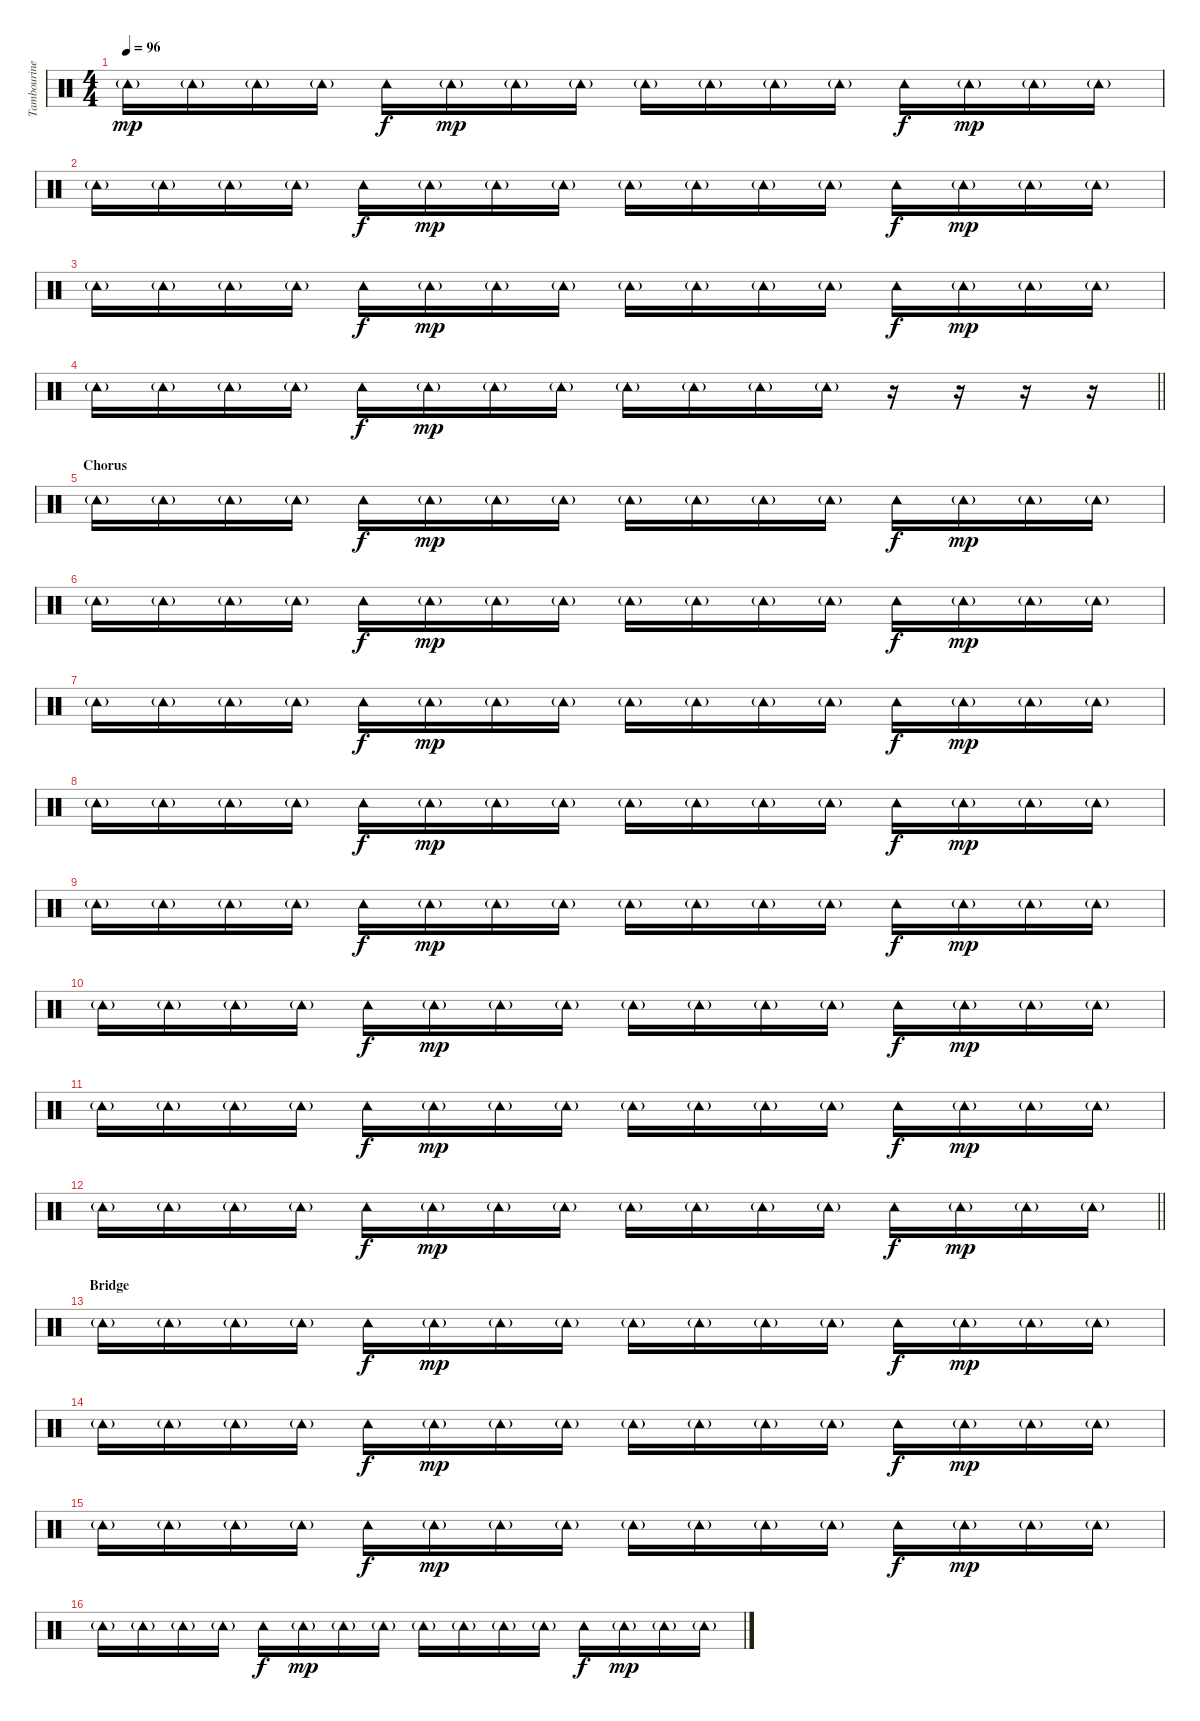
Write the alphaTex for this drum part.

\track ("Tambourine" "Tambourine") {instrument percussion}
\staff {score}
\articulation defaults
\ts (4 4)
\tempo 96
\clef neutral
\ks c "Tambourine (hit)"{g}.16{dy mp} "Tambourine (hit)"{g}.16 "Tambourine (hit)"{g}.16 "Tambourine (hit)"{g}.16 "Tambourine (hit)".16{dy f} "Tambourine (hit)"{g}.16{dy mp} "Tambourine (hit)"{g}.16 "Tambourine (hit)"{g}.16 "Tambourine (hit)"{g}.16 "Tambourine (hit)"{g}.16 "Tambourine (hit)"{g}.16 "Tambourine (hit)"{g}.16 "Tambourine (hit)".16{dy f} "Tambourine (hit)"{g}.16{dy mp} "Tambourine (hit)"{g}.16 "Tambourine (hit)"{g}.16
|
"Tambourine (hit)"{g}.16 "Tambourine (hit)"{g}.16 "Tambourine (hit)"{g}.16 "Tambourine (hit)"{g}.16 "Tambourine (hit)".16{dy f} "Tambourine (hit)"{g}.16{dy mp} "Tambourine (hit)"{g}.16 "Tambourine (hit)"{g}.16 "Tambourine (hit)"{g}.16 "Tambourine (hit)"{g}.16 "Tambourine (hit)"{g}.16 "Tambourine (hit)"{g}.16 "Tambourine (hit)".16{dy f} "Tambourine (hit)"{g}.16{dy mp} "Tambourine (hit)"{g}.16 "Tambourine (hit)"{g}.16 |
"Tambourine (hit)"{g}.16 "Tambourine (hit)"{g}.16 "Tambourine (hit)"{g}.16 "Tambourine (hit)"{g}.16 "Tambourine (hit)".16{dy f} "Tambourine (hit)"{g}.16{dy mp} "Tambourine (hit)"{g}.16 "Tambourine (hit)"{g}.16 "Tambourine (hit)"{g}.16 "Tambourine (hit)"{g}.16 "Tambourine (hit)"{g}.16 "Tambourine (hit)"{g}.16 "Tambourine (hit)".16{dy f} "Tambourine (hit)"{g}.16{dy mp} "Tambourine (hit)"{g}.16 "Tambourine (hit)"{g}.16 |
\barLineRight lightlight "Tambourine (hit)"{g}.16 "Tambourine (hit)"{g}.16 "Tambourine (hit)"{g}.16 "Tambourine (hit)"{g}.16 "Tambourine (hit)".16{dy f} "Tambourine (hit)"{g}.16{dy mp} "Tambourine (hit)"{g}.16 "Tambourine (hit)"{g}.16 "Tambourine (hit)"{g}.16 "Tambourine (hit)"{g}.16 "Tambourine (hit)"{g}.16 "Tambourine (hit)"{g}.16
r.16 r.16 r.16 r.16 |
\section ("" "Chorus")
"Tambourine (hit)"{g}.16 "Tambourine (hit)"{g}.16 "Tambourine (hit)"{g}.16 "Tambourine (hit)"{g}.16 "Tambourine (hit)".16{dy f} "Tambourine (hit)"{g}.16{dy mp} "Tambourine (hit)"{g}.16 "Tambourine (hit)"{g}.16 "Tambourine (hit)"{g}.16 "Tambourine (hit)"{g}.16 "Tambourine (hit)"{g}.16 "Tambourine (hit)"{g}.16 "Tambourine (hit)".16{dy f} "Tambourine (hit)"{g}.16{dy mp} "Tambourine (hit)"{g}.16 "Tambourine (hit)"{g}.16 |
"Tambourine (hit)"{g}.16 "Tambourine (hit)"{g}.16 "Tambourine (hit)"{g}.16 "Tambourine (hit)"{g}.16 "Tambourine (hit)".16{dy f} "Tambourine (hit)"{g}.16{dy mp} "Tambourine (hit)"{g}.16 "Tambourine (hit)"{g}.16 "Tambourine (hit)"{g}.16 "Tambourine (hit)"{g}.16 "Tambourine (hit)"{g}.16 "Tambourine (hit)"{g}.16 "Tambourine (hit)".16{dy f} "Tambourine (hit)"{g}.16{dy mp} "Tambourine (hit)"{g}.16 "Tambourine (hit)"{g}.16 |
"Tambourine (hit)"{g}.16 "Tambourine (hit)"{g}.16 "Tambourine (hit)"{g}.16 "Tambourine (hit)"{g}.16 "Tambourine (hit)".16{dy f} "Tambourine (hit)"{g}.16{dy mp} "Tambourine (hit)"{g}.16 "Tambourine (hit)"{g}.16 "Tambourine (hit)"{g}.16 "Tambourine (hit)"{g}.16 "Tambourine (hit)"{g}.16 "Tambourine (hit)"{g}.16 "Tambourine (hit)".16{dy f} "Tambourine (hit)"{g}.16{dy mp} "Tambourine (hit)"{g}.16 "Tambourine (hit)"{g}.16 |
"Tambourine (hit)"{g}.16 "Tambourine (hit)"{g}.16 "Tambourine (hit)"{g}.16 "Tambourine (hit)"{g}.16 "Tambourine (hit)".16{dy f} "Tambourine (hit)"{g}.16{dy mp} "Tambourine (hit)"{g}.16 "Tambourine (hit)"{g}.16 "Tambourine (hit)"{g}.16 "Tambourine (hit)"{g}.16 "Tambourine (hit)"{g}.16 "Tambourine (hit)"{g}.16 "Tambourine (hit)".16{dy f} "Tambourine (hit)"{g}.16{dy mp} "Tambourine (hit)"{g}.16 "Tambourine (hit)"{g}.16 |
"Tambourine (hit)"{g}.16 "Tambourine (hit)"{g}.16 "Tambourine (hit)"{g}.16 "Tambourine (hit)"{g}.16 "Tambourine (hit)".16{dy f} "Tambourine (hit)"{g}.16{dy mp} "Tambourine (hit)"{g}.16 "Tambourine (hit)"{g}.16 "Tambourine (hit)"{g}.16 "Tambourine (hit)"{g}.16 "Tambourine (hit)"{g}.16 "Tambourine (hit)"{g}.16 "Tambourine (hit)".16{dy f} "Tambourine (hit)"{g}.16{dy mp} "Tambourine (hit)"{g}.16 "Tambourine (hit)"{g}.16 |
"Tambourine (hit)"{g}.16 "Tambourine (hit)"{g}.16 "Tambourine (hit)"{g}.16 "Tambourine (hit)"{g}.16 "Tambourine (hit)".16{dy f} "Tambourine (hit)"{g}.16{dy mp} "Tambourine (hit)"{g}.16 "Tambourine (hit)"{g}.16 "Tambourine (hit)"{g}.16 "Tambourine (hit)"{g}.16 "Tambourine (hit)"{g}.16 "Tambourine (hit)"{g}.16 "Tambourine (hit)".16{dy f} "Tambourine (hit)"{g}.16{dy mp} "Tambourine (hit)"{g}.16 "Tambourine (hit)"{g}.16 |
"Tambourine (hit)"{g}.16 "Tambourine (hit)"{g}.16 "Tambourine (hit)"{g}.16 "Tambourine (hit)"{g}.16 "Tambourine (hit)".16{dy f} "Tambourine (hit)"{g}.16{dy mp} "Tambourine (hit)"{g}.16 "Tambourine (hit)"{g}.16 "Tambourine (hit)"{g}.16 "Tambourine (hit)"{g}.16 "Tambourine (hit)"{g}.16 "Tambourine (hit)"{g}.16 "Tambourine (hit)".16{dy f} "Tambourine (hit)"{g}.16{dy mp} "Tambourine (hit)"{g}.16 "Tambourine (hit)"{g}.16 |
\barLineRight lightlight "Tambourine (hit)"{g}.16 "Tambourine (hit)"{g}.16 "Tambourine (hit)"{g}.16 "Tambourine (hit)"{g}.16 "Tambourine (hit)".16{dy f} "Tambourine (hit)"{g}.16{dy mp} "Tambourine (hit)"{g}.16 "Tambourine (hit)"{g}.16 "Tambourine (hit)"{g}.16 "Tambourine (hit)"{g}.16 "Tambourine (hit)"{g}.16 "Tambourine (hit)"{g}.16 "Tambourine (hit)".16{dy f} "Tambourine (hit)"{g}.16{dy mp} "Tambourine (hit)"{g}.16 "Tambourine (hit)"{g}.16
|
\section ("" "Bridge")
"Tambourine (hit)"{g}.16 "Tambourine (hit)"{g}.16 "Tambourine (hit)"{g}.16 "Tambourine (hit)"{g}.16 "Tambourine (hit)".16{dy f} "Tambourine (hit)"{g}.16{dy mp} "Tambourine (hit)"{g}.16 "Tambourine (hit)"{g}.16 "Tambourine (hit)"{g}.16 "Tambourine (hit)"{g}.16 "Tambourine (hit)"{g}.16 "Tambourine (hit)"{g}.16 "Tambourine (hit)".16{dy f} "Tambourine (hit)"{g}.16{dy mp} "Tambourine (hit)"{g}.16 "Tambourine (hit)"{g}.16 |
"Tambourine (hit)"{g}.16 "Tambourine (hit)"{g}.16 "Tambourine (hit)"{g}.16 "Tambourine (hit)"{g}.16 "Tambourine (hit)".16{dy f} "Tambourine (hit)"{g}.16{dy mp} "Tambourine (hit)"{g}.16 "Tambourine (hit)"{g}.16 "Tambourine (hit)"{g}.16 "Tambourine (hit)"{g}.16 "Tambourine (hit)"{g}.16 "Tambourine (hit)"{g}.16 "Tambourine (hit)".16{dy f} "Tambourine (hit)"{g}.16{dy mp} "Tambourine (hit)"{g}.16 "Tambourine (hit)"{g}.16 |
"Tambourine (hit)"{g}.16 "Tambourine (hit)"{g}.16 "Tambourine (hit)"{g}.16 "Tambourine (hit)"{g}.16 "Tambourine (hit)".16{dy f} "Tambourine (hit)"{g}.16{dy mp} "Tambourine (hit)"{g}.16 "Tambourine (hit)"{g}.16 "Tambourine (hit)"{g}.16 "Tambourine (hit)"{g}.16 "Tambourine (hit)"{g}.16 "Tambourine (hit)"{g}.16 "Tambourine (hit)".16{dy f} "Tambourine (hit)"{g}.16{dy mp} "Tambourine (hit)"{g}.16 "Tambourine (hit)"{g}.16 |
"Tambourine (hit)"{g}.16 "Tambourine (hit)"{g}.16 "Tambourine (hit)"{g}.16 "Tambourine (hit)"{g}.16 "Tambourine (hit)".16{dy f} "Tambourine (hit)"{g}.16{dy mp} "Tambourine (hit)"{g}.16 "Tambourine (hit)"{g}.16 "Tambourine (hit)"{g}.16 "Tambourine (hit)"{g}.16 "Tambourine (hit)"{g}.16 "Tambourine (hit)"{g}.16 "Tambourine (hit)".16{dy f} "Tambourine (hit)"{g}.16{dy mp} "Tambourine (hit)"{g}.16 "Tambourine (hit)"{g}.16
